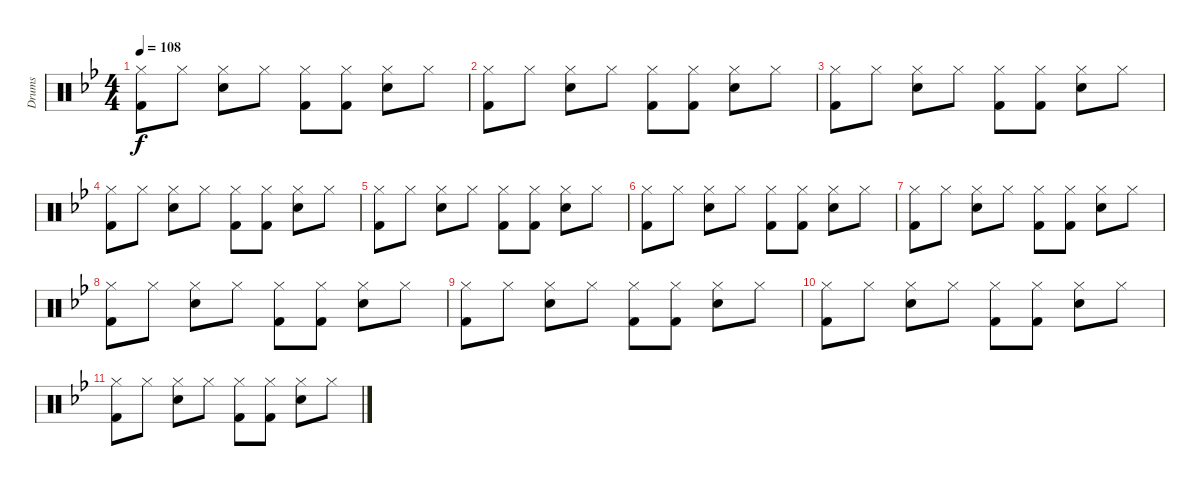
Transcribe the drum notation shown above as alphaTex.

\track ("Drums" "Drums") {instrument percussion}
\staff {score}
\articulation defaults
\ts (4 4)
\tempo 108
\clef neutral
\ks bb
("Hi-Hat (closed)" "Kick (hit) 2").8{dy f} "Hi-Hat (closed)".8 ("Hi-Hat (closed)" "Snare (hit) 2").8 "Hi-Hat (closed)".8 ("Hi-Hat (closed)" "Kick (hit) 2").8 ("Hi-Hat (closed)" "Kick (hit) 2").8 ("Hi-Hat (closed)" "Snare (hit) 2").8 "Hi-Hat (closed)".8 |
("Hi-Hat (closed)" "Kick (hit) 2").8 "Hi-Hat (closed)".8 ("Hi-Hat (closed)" "Snare (hit) 2").8 "Hi-Hat (closed)".8 ("Hi-Hat (closed)" "Kick (hit) 2").8 ("Hi-Hat (closed)" "Kick (hit) 2").8 ("Hi-Hat (closed)" "Snare (hit) 2").8 "Hi-Hat (closed)".8 |
("Hi-Hat (closed)" "Kick (hit) 2").8 "Hi-Hat (closed)".8 ("Hi-Hat (closed)" "Snare (hit) 2").8 "Hi-Hat (closed)".8 ("Hi-Hat (closed)" "Kick (hit) 2").8 ("Hi-Hat (closed)" "Kick (hit) 2").8 ("Hi-Hat (closed)" "Snare (hit) 2").8 "Hi-Hat (closed)".8 |
("Hi-Hat (closed)" "Kick (hit) 2").8 "Hi-Hat (closed)".8 ("Hi-Hat (closed)" "Snare (hit) 2").8 "Hi-Hat (closed)".8 ("Hi-Hat (closed)" "Kick (hit) 2").8 ("Hi-Hat (closed)" "Kick (hit) 2").8 ("Hi-Hat (closed)" "Snare (hit) 2").8 "Hi-Hat (closed)".8 |
("Hi-Hat (closed)" "Kick (hit) 2").8 "Hi-Hat (closed)".8 ("Hi-Hat (closed)" "Snare (hit) 2").8 "Hi-Hat (closed)".8 ("Hi-Hat (closed)" "Kick (hit) 2").8 ("Hi-Hat (closed)" "Kick (hit) 2").8 ("Hi-Hat (closed)" "Snare (hit) 2").8 "Hi-Hat (closed)".8 |
("Hi-Hat (closed)" "Kick (hit) 2").8 "Hi-Hat (closed)".8 ("Hi-Hat (closed)" "Snare (hit) 2").8 "Hi-Hat (closed)".8 ("Hi-Hat (closed)" "Kick (hit) 2").8 ("Hi-Hat (closed)" "Kick (hit) 2").8 ("Hi-Hat (closed)" "Snare (hit) 2").8 "Hi-Hat (closed)".8 |
("Hi-Hat (closed)" "Kick (hit) 2").8 "Hi-Hat (closed)".8 ("Hi-Hat (closed)" "Snare (hit) 2").8 "Hi-Hat (closed)".8 ("Hi-Hat (closed)" "Kick (hit) 2").8 ("Hi-Hat (closed)" "Kick (hit) 2").8 ("Hi-Hat (closed)" "Snare (hit) 2").8 "Hi-Hat (closed)".8 |
("Hi-Hat (closed)" "Kick (hit) 2").8 "Hi-Hat (closed)".8 ("Hi-Hat (closed)" "Snare (hit) 2").8 "Hi-Hat (closed)".8 ("Hi-Hat (closed)" "Kick (hit) 2").8 ("Hi-Hat (closed)" "Kick (hit) 2").8 ("Hi-Hat (closed)" "Snare (hit) 2").8 "Hi-Hat (closed)".8 |
("Hi-Hat (closed)" "Kick (hit) 2").8 "Hi-Hat (closed)".8 ("Hi-Hat (closed)" "Snare (hit) 2").8 "Hi-Hat (closed)".8 ("Hi-Hat (closed)" "Kick (hit) 2").8 ("Hi-Hat (closed)" "Kick (hit) 2").8 ("Hi-Hat (closed)" "Snare (hit) 2").8 "Hi-Hat (closed)".8 |
("Hi-Hat (closed)" "Kick (hit) 2").8 "Hi-Hat (closed)".8 ("Hi-Hat (closed)" "Snare (hit) 2").8 "Hi-Hat (closed)".8 ("Hi-Hat (closed)" "Kick (hit) 2").8 ("Hi-Hat (closed)" "Kick (hit) 2").8 ("Hi-Hat (closed)" "Snare (hit) 2").8 "Hi-Hat (closed)".8 |
("Hi-Hat (closed)" "Kick (hit) 2").8 "Hi-Hat (closed)".8 ("Hi-Hat (closed)" "Snare (hit) 2").8 "Hi-Hat (closed)".8 ("Hi-Hat (closed)" "Kick (hit) 2").8 ("Hi-Hat (closed)" "Kick (hit) 2").8 ("Hi-Hat (closed)" "Snare (hit) 2").8 "Hi-Hat (closed)".8
